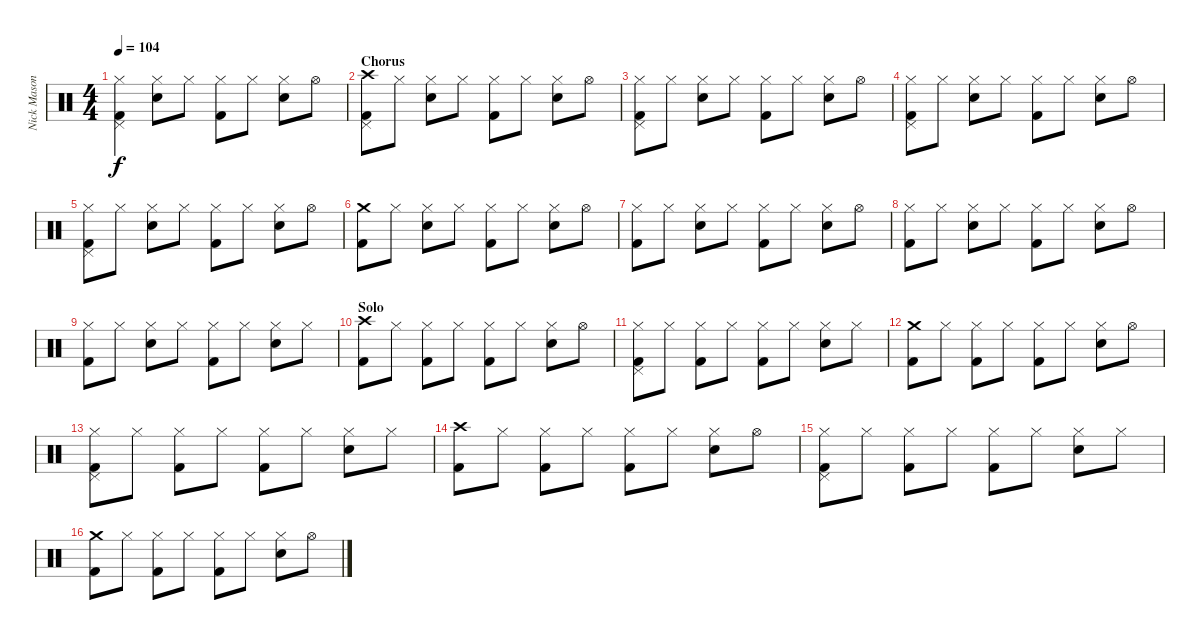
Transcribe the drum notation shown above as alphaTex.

\track ("Nick Mason | Ludwig Drumkit | Drums" "Nick Mason") {instrument percussion}
\staff {score}
\articulation defaults
\ts (4 4)
\tempo 104
\clef neutral
\ks c
("Hi-Hat (closed)" "Kick (hit) 2" "Pedal Hi-Hat (hit)").4{dy f} ("Hi-Hat (closed)" "Snare (hit) 2").8 "Hi-Hat (closed)".8 ("Hi-Hat (closed)" "Kick (hit) 2").8 "Hi-Hat (closed)".8 ("Hi-Hat (closed)" "Snare (hit) 2").8 "Hi-Hat (open)".8 |
\section ("" "Chorus")
("Crash high (hit)" "Kick (hit) 2" "Pedal Hi-Hat (hit)").8 "Hi-Hat (closed)".8 ("Hi-Hat (closed)" "Snare (hit) 2").8 "Hi-Hat (closed)".8 ("Hi-Hat (closed)" "Kick (hit) 2").8 "Hi-Hat (closed)".8 ("Hi-Hat (closed)" "Snare (hit) 2").8 "Hi-Hat (open)".8 |
("Hi-Hat (closed)" "Kick (hit) 2" "Pedal Hi-Hat (hit)").8 "Hi-Hat (closed)".8 ("Hi-Hat (closed)" "Snare (hit) 2").8 "Hi-Hat (closed)".8 ("Hi-Hat (closed)" "Kick (hit) 2").8 "Hi-Hat (closed)".8 ("Hi-Hat (closed)" "Snare (hit) 2").8 "Hi-Hat (open)".8 |
("Hi-Hat (closed)" "Kick (hit) 2" "Pedal Hi-Hat (hit)").8 "Hi-Hat (closed)".8 ("Hi-Hat (closed)" "Snare (hit) 2").8 "Hi-Hat (closed)".8 ("Hi-Hat (closed)" "Kick (hit) 2").8 "Hi-Hat (closed)".8 ("Hi-Hat (closed)" "Snare (hit) 2").8 "Hi-Hat (open)".8 |
("Hi-Hat (closed)" "Kick (hit) 2" "Pedal Hi-Hat (hit)").8 "Hi-Hat (closed)".8 ("Hi-Hat (closed)" "Snare (hit) 2").8 "Hi-Hat (closed)".8 ("Hi-Hat (closed)" "Kick (hit) 2").8 "Hi-Hat (closed)".8 ("Hi-Hat (closed)" "Snare (hit) 2").8 "Hi-Hat (open)".8 |
("Crash medium (hit)" "Kick (hit) 2").8 "Hi-Hat (closed)".8 ("Hi-Hat (closed)" "Snare (hit) 2").8 "Hi-Hat (closed)".8 ("Hi-Hat (closed)" "Kick (hit) 2").8 "Hi-Hat (closed)".8 ("Hi-Hat (closed)" "Snare (hit) 2").8 "Hi-Hat (open)".8 |
("Hi-Hat (closed)" "Kick (hit) 2").8 "Hi-Hat (closed)".8 ("Hi-Hat (closed)" "Snare (hit) 2").8 "Hi-Hat (closed)".8 ("Hi-Hat (closed)" "Kick (hit) 2").8 "Hi-Hat (closed)".8 ("Hi-Hat (closed)" "Snare (hit) 2").8 "Hi-Hat (open)".8 |
("Hi-Hat (closed)" "Kick (hit) 2").8 "Hi-Hat (closed)".8 ("Hi-Hat (closed)" "Snare (hit) 2").8 "Hi-Hat (closed)".8 ("Hi-Hat (closed)" "Kick (hit) 2").8 "Hi-Hat (closed)".8 ("Hi-Hat (closed)" "Snare (hit) 2").8 "Hi-Hat (open)".8 |
("Hi-Hat (closed)" "Kick (hit) 2").8 "Hi-Hat (closed)".8 ("Hi-Hat (closed)" "Snare (hit) 2").8 "Hi-Hat (closed)".8 ("Hi-Hat (closed)" "Kick (hit) 2").8 "Hi-Hat (closed)".8 ("Hi-Hat (closed)" "Snare (hit) 2").8 "Hi-Hat (closed)".8 |
\section ("" "Solo")
("Crash high (hit)" "Kick (hit) 2").8 "Hi-Hat (closed)".8 ("Hi-Hat (closed)" "Kick (hit) 2").8 "Hi-Hat (closed)".8 ("Hi-Hat (closed)" "Kick (hit) 2").8 "Hi-Hat (closed)".8 ("Hi-Hat (closed)" "Snare (hit) 2").8 "Hi-Hat (open)".8 |
("Hi-Hat (closed)" "Kick (hit) 2" "Pedal Hi-Hat (hit)").8 "Hi-Hat (closed)".8 ("Hi-Hat (closed)" "Kick (hit) 2").8 "Hi-Hat (closed)".8 ("Hi-Hat (closed)" "Kick (hit) 2").8 "Hi-Hat (closed)".8 ("Hi-Hat (closed)" "Snare (hit) 2").8 "Hi-Hat (closed)".8 |
("Crash medium (hit)" "Kick (hit) 2").8 "Hi-Hat (closed)".8 ("Hi-Hat (closed)" "Kick (hit) 2").8 "Hi-Hat (closed)".8 ("Hi-Hat (closed)" "Kick (hit) 2").8 "Hi-Hat (closed)".8 ("Hi-Hat (closed)" "Snare (hit) 2").8 "Hi-Hat (open)".8 |
("Hi-Hat (closed)" "Kick (hit) 2" "Pedal Hi-Hat (hit)").8 "Hi-Hat (closed)".8 ("Hi-Hat (closed)" "Kick (hit) 2").8 "Hi-Hat (closed)".8 ("Hi-Hat (closed)" "Kick (hit) 2").8 "Hi-Hat (closed)".8 ("Hi-Hat (closed)" "Snare (hit) 2").8 "Hi-Hat (closed)".8 |
("Crash high (hit)" "Kick (hit) 2").8 "Hi-Hat (closed)".8 ("Hi-Hat (closed)" "Kick (hit) 2").8 "Hi-Hat (closed)".8 ("Hi-Hat (closed)" "Kick (hit) 2").8 "Hi-Hat (closed)".8 ("Hi-Hat (closed)" "Snare (hit) 2").8 "Hi-Hat (open)".8 |
("Hi-Hat (closed)" "Kick (hit) 2" "Pedal Hi-Hat (hit)").8 "Hi-Hat (closed)".8 ("Hi-Hat (closed)" "Kick (hit) 2").8 "Hi-Hat (closed)".8 ("Hi-Hat (closed)" "Kick (hit) 2").8 "Hi-Hat (closed)".8 ("Hi-Hat (closed)" "Snare (hit) 2").8 "Hi-Hat (closed)".8 |
("Crash medium (hit)" "Kick (hit) 2").8 "Hi-Hat (closed)".8 ("Hi-Hat (closed)" "Kick (hit) 2").8 "Hi-Hat (closed)".8 ("Hi-Hat (closed)" "Kick (hit) 2").8 "Hi-Hat (closed)".8 ("Hi-Hat (closed)" "Snare (hit) 2").8 "Hi-Hat (open)".8
